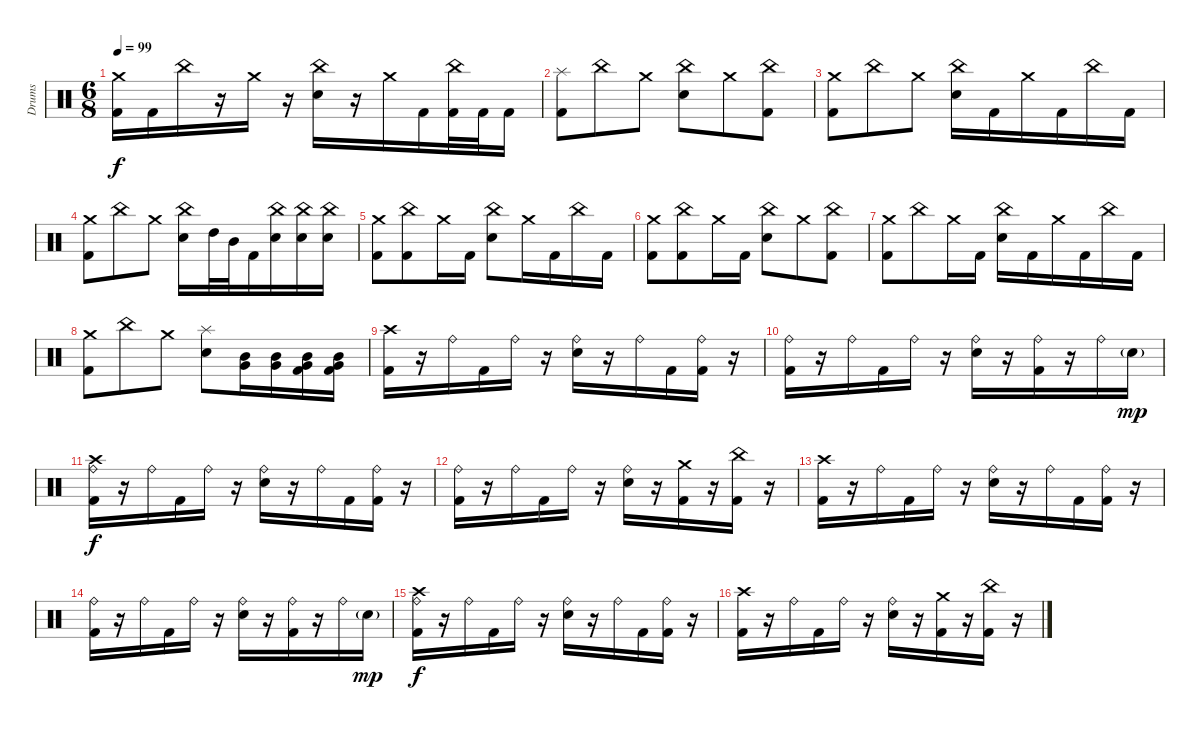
\track ("Drums" "Drums") {instrument percussion}
\staff {score}
\articulation defaults
\ts (6 8)
\tempo 99
\clef neutral
\ks c
("Crash medium (hit)" "Kick (hit) 2").16{dy f} "Kick (hit) 2".16 "China (hit)".16 r.16 "Crash medium (hit)".16 r.16 ("China (hit)" "Electric Snare (hit)").16 r.16 "Crash medium (hit)".16 "Kick (hit) 2".16 ("China (hit)" "Kick (hit) 2").32 "Kick (hit) 2".32 "Kick (hit) 2".16 |
("Splash (hit)" "Kick (hit) 2").8 "China (hit)".8 "Crash medium (hit)".8 ("China (hit)" "Electric Snare (hit)").8 "Crash medium (hit)".8 ("China (hit)" "Kick (hit) 2").8 |
("Crash medium (hit)" "Kick (hit) 2").8 "China (hit)".8 "Crash medium (hit)".8 ("China (hit)" "Electric Snare (hit)").16 "Kick (hit) 2".16 "Crash medium (hit)".16 "Kick (hit) 2".16 "China (hit)".16 "Kick (hit) 2".16 |
("Crash medium (hit)" "Kick (hit) 2").8 "China (hit)".8 "Crash medium (hit)".8 ("China (hit)" "Electric Snare (hit)").16 "High Tom (hit)".32 "Mid Tom (hit)".32 "Kick (hit) 2".16 ("China (hit)" "Electric Snare (hit)").16 ("China (hit)" "Electric Snare (hit)").16 ("China (hit)" "Electric Snare (hit)").16 |
("Crash medium (hit)" "Kick (hit) 2").8 ("China (hit)" "Kick (hit) 2").8 "Crash medium (hit)".16 "Kick (hit) 2".16 ("China (hit)" "Electric Snare (hit)").8 "Crash medium (hit)".16 "Kick (hit) 2".16 "China (hit)".16 "Kick (hit) 2".16 |
("Crash medium (hit)" "Kick (hit) 2").8 ("China (hit)" "Kick (hit) 2").8 "Crash medium (hit)".16 "Kick (hit) 2".16 ("China (hit)" "Electric Snare (hit)").8 "Crash medium (hit)".8 ("China (hit)" "Kick (hit) 2").8 |
("Crash medium (hit)" "Kick (hit) 2").8 "China (hit)".8 "Crash medium (hit)".16 "Kick (hit) 2".16 ("China (hit)" "Electric Snare (hit)").16 "Kick (hit) 2".16 "Crash medium (hit)".16 "Kick (hit) 2".16 "China (hit)".16 "Kick (hit) 2".16 |
("Crash medium (hit)" "Kick (hit) 2").8 "China (hit)".8 "Crash medium (hit)".8 ("Splash (hit)" "Electric Snare (hit)").8 ("Mid Tom (hit)" "Very Low Tom (hit)").16 ("Mid Tom (hit)" "Very Low Tom (hit)").16 ("Mid Tom (hit)" "Very Low Tom (hit)" "Kick (hit) 2").16 ("Mid Tom (hit)" "Very Low Tom (hit)" "Kick (hit) 2").16 |
("Crash high (hit)" "Kick (hit) 2").16 r.16 "Ride (bell)".16 "Kick (hit) 2".16 "Ride (bell)".16 r.16 ("Ride (bell)" "Electric Snare (hit)").16 r.16 "Ride (bell)".16 "Kick (hit) 2".16 ("Ride (bell)" "Kick (hit) 2").16 r.16 |
("Ride (bell)" "Kick (hit) 2").16 r.16 "Ride (bell)".16 "Kick (hit) 2".16 "Ride (bell)".16 r.16 ("Ride (bell)" "Electric Snare (hit)").16 r.16 ("Ride (bell)" "Kick (hit) 2").16 r.16 "Ride (bell)".16 "Electric Snare (hit)"{g}.16{dy mp} |
("Crash high (hit)" "Ride (bell)" "Kick (hit) 2").16{dy f} r.16 "Ride (bell)".16 "Kick (hit) 2".16 "Ride (bell)".16 r.16 ("Ride (bell)" "Electric Snare (hit)").16 r.16 "Ride (bell)".16 "Kick (hit) 2".16 ("Ride (bell)" "Kick (hit) 2").16 r.16 |
("Ride (bell)" "Kick (hit) 2").16 r.16 "Ride (bell)".16 "Kick (hit) 2".16 "Ride (bell)".16 r.16 ("Ride (bell)" "Electric Snare (hit)").16 r.16 ("Crash medium (hit)" "Kick (hit) 2").16 r.16 ("China (hit)" "Kick (hit) 2").16 r.16 |
("Crash high (hit)" "Kick (hit) 2").16 r.16 "Ride (bell)".16 "Kick (hit) 2".16 "Ride (bell)".16 r.16 ("Ride (bell)" "Electric Snare (hit)").16 r.16 "Ride (bell)".16 "Kick (hit) 2".16 ("Ride (bell)" "Kick (hit) 2").16 r.16 |
("Ride (bell)" "Kick (hit) 2").16 r.16 "Ride (bell)".16 "Kick (hit) 2".16 "Ride (bell)".16 r.16 ("Ride (bell)" "Electric Snare (hit)").16 r.16 ("Ride (bell)" "Kick (hit) 2").16 r.16 "Ride (bell)".16 "Electric Snare (hit)"{g}.16{dy mp} |
("Crash high (hit)" "Ride (bell)" "Kick (hit) 2").16{dy f} r.16 "Ride (bell)".16 "Kick (hit) 2".16 "Ride (bell)".16 r.16 ("Ride (bell)" "Electric Snare (hit)").16 r.16 "Ride (bell)".16 "Kick (hit) 2".16 ("Ride (bell)" "Kick (hit) 2").16 r.16 |
("Crash high (hit)" "Kick (hit) 2").16 r.16 "Ride (bell)".16 "Kick (hit) 2".16 "Ride (bell)".16 r.16 ("Ride (bell)" "Electric Snare (hit)").16 r.16 ("Crash medium (hit)" "Kick (hit) 2").16 r.16 ("China (hit)" "Kick (hit) 2").16 r.16
